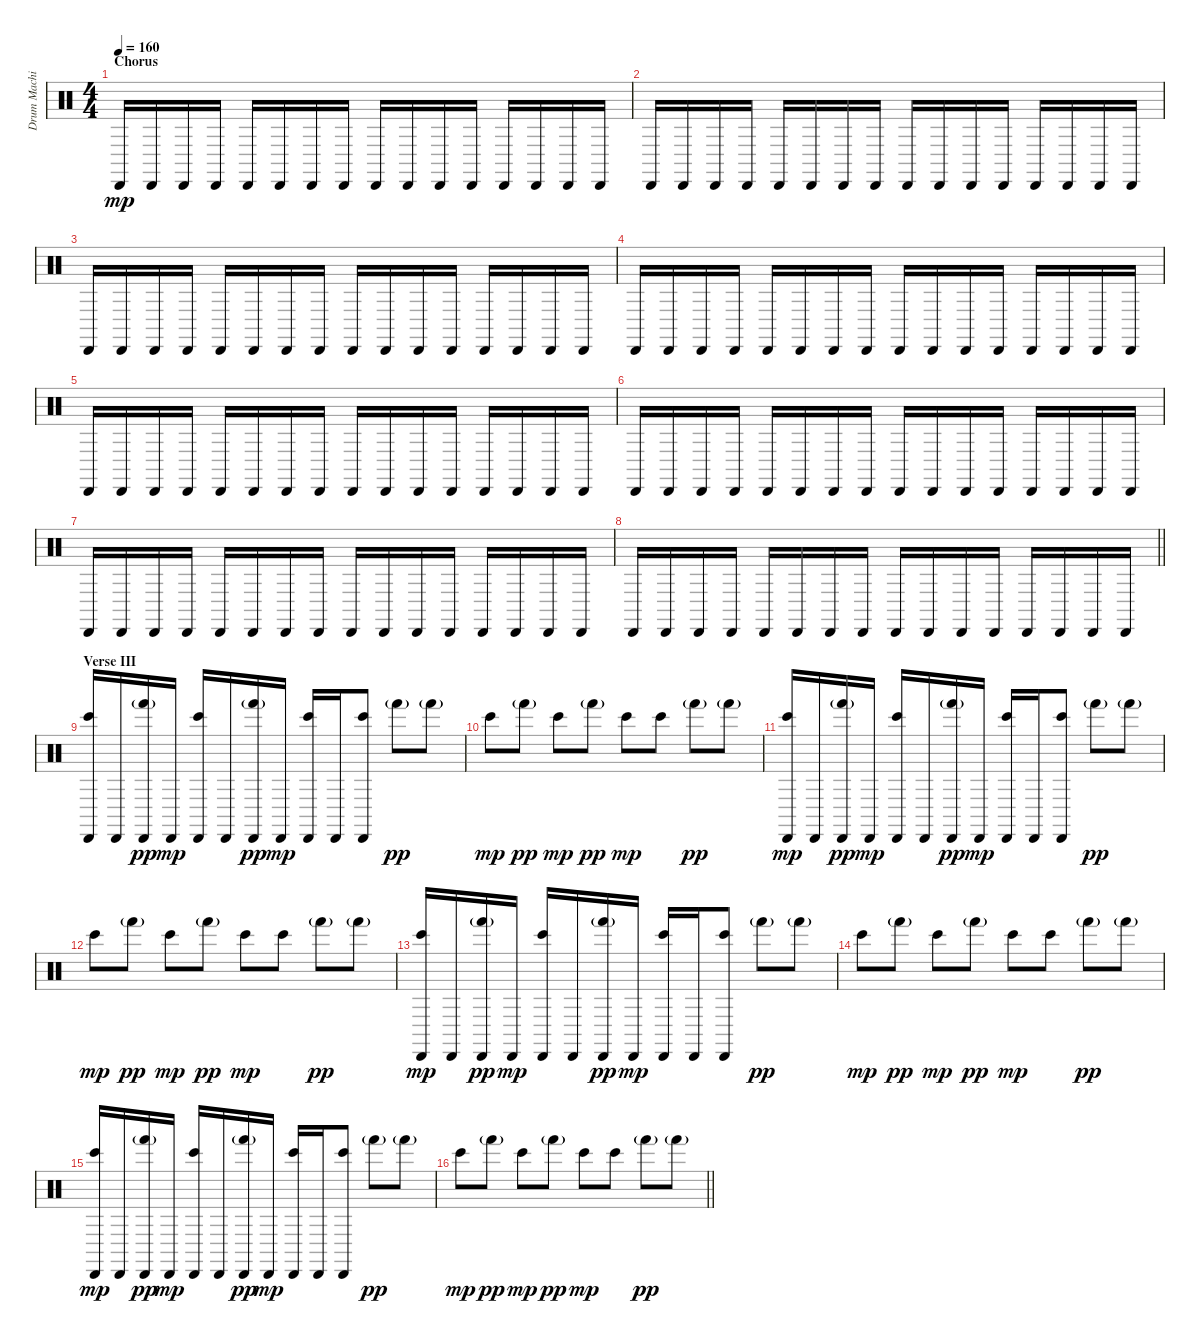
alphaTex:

\track ("Drum Machine" "Drum Machi") {instrument percussion}
\staff {score}
\articulation defaults
\ts (4 4)
\section ("" "Chorus")
\tempo 160
\clef neutral
\ks c "Cabasa (hit)".16{dy mp} "Cabasa (hit)".16 "Cabasa (hit)".16 "Cabasa (hit)".16 "Cabasa (hit)".16 "Cabasa (hit)".16 "Cabasa (hit)".16 "Cabasa (hit)".16 "Cabasa (hit)".16 "Cabasa (hit)".16 "Cabasa (hit)".16 "Cabasa (hit)".16 "Cabasa (hit)".16 "Cabasa (hit)".16 "Cabasa (hit)".16 "Cabasa (hit)".16
|
"Cabasa (hit)".16 "Cabasa (hit)".16 "Cabasa (hit)".16 "Cabasa (hit)".16 "Cabasa (hit)".16 "Cabasa (hit)".16 "Cabasa (hit)".16 "Cabasa (hit)".16 "Cabasa (hit)".16 "Cabasa (hit)".16 "Cabasa (hit)".16 "Cabasa (hit)".16 "Cabasa (hit)".16 "Cabasa (hit)".16 "Cabasa (hit)".16 "Cabasa (hit)".16 |
"Cabasa (hit)".16 "Cabasa (hit)".16 "Cabasa (hit)".16 "Cabasa (hit)".16 "Cabasa (hit)".16 "Cabasa (hit)".16 "Cabasa (hit)".16 "Cabasa (hit)".16 "Cabasa (hit)".16 "Cabasa (hit)".16 "Cabasa (hit)".16 "Cabasa (hit)".16 "Cabasa (hit)".16 "Cabasa (hit)".16 "Cabasa (hit)".16 "Cabasa (hit)".16 |
"Cabasa (hit)".16 "Cabasa (hit)".16 "Cabasa (hit)".16 "Cabasa (hit)".16 "Cabasa (hit)".16 "Cabasa (hit)".16 "Cabasa (hit)".16 "Cabasa (hit)".16 "Cabasa (hit)".16 "Cabasa (hit)".16 "Cabasa (hit)".16 "Cabasa (hit)".16 "Cabasa (hit)".16 "Cabasa (hit)".16 "Cabasa (hit)".16 "Cabasa (hit)".16 |
"Cabasa (hit)".16 "Cabasa (hit)".16 "Cabasa (hit)".16 "Cabasa (hit)".16 "Cabasa (hit)".16 "Cabasa (hit)".16 "Cabasa (hit)".16 "Cabasa (hit)".16 "Cabasa (hit)".16 "Cabasa (hit)".16 "Cabasa (hit)".16 "Cabasa (hit)".16 "Cabasa (hit)".16 "Cabasa (hit)".16 "Cabasa (hit)".16 "Cabasa (hit)".16 |
"Cabasa (hit)".16 "Cabasa (hit)".16 "Cabasa (hit)".16 "Cabasa (hit)".16 "Cabasa (hit)".16 "Cabasa (hit)".16 "Cabasa (hit)".16 "Cabasa (hit)".16 "Cabasa (hit)".16 "Cabasa (hit)".16 "Cabasa (hit)".16 "Cabasa (hit)".16 "Cabasa (hit)".16 "Cabasa (hit)".16 "Cabasa (hit)".16 "Cabasa (hit)".16 |
"Cabasa (hit)".16 "Cabasa (hit)".16 "Cabasa (hit)".16 "Cabasa (hit)".16 "Cabasa (hit)".16 "Cabasa (hit)".16 "Cabasa (hit)".16 "Cabasa (hit)".16 "Cabasa (hit)".16 "Cabasa (hit)".16 "Cabasa (hit)".16 "Cabasa (hit)".16 "Cabasa (hit)".16 "Cabasa (hit)".16 "Cabasa (hit)".16 "Cabasa (hit)".16 |
\barLineRight lightlight "Cabasa (hit)".16 "Cabasa (hit)".16 "Cabasa (hit)".16 "Cabasa (hit)".16 "Cabasa (hit)".16 "Cabasa (hit)".16 "Cabasa (hit)".16 "Cabasa (hit)".16 "Cabasa (hit)".16 "Cabasa (hit)".16 "Cabasa (hit)".16 "Cabasa (hit)".16 "Cabasa (hit)".16 "Cabasa (hit)".16 "Cabasa (hit)".16 "Cabasa (hit)".16
|
\section ("" "Verse III")
("Cabasa (hit)" "Bongo High (hit)").16 "Cabasa (hit)".16 ("Cabasa (hit)" "Hand (hit)"{g}).16{dy pp} "Cabasa (hit)".16{dy mp} ("Cabasa (hit)" "Bongo High (hit)").16 "Cabasa (hit)".16 ("Cabasa (hit)" "Hand (hit)"{g}).16{dy pp} "Cabasa (hit)".16{dy mp} ("Cabasa (hit)" "Bongo High (hit)").16 "Cabasa (hit)".16 ("Cabasa (hit)" "Bongo High (hit)").8 "Hand (hit)"{g}.8{dy pp} "Hand (hit)"{g}.8 |
"Bongo High (hit)".8{dy mp} "Hand (hit)"{g}.8{dy pp} "Bongo High (hit)".8{dy mp} "Hand (hit)"{g}.8{dy pp} "Bongo High (hit)".8{dy mp} "Bongo High (hit)".8 "Hand (hit)"{g}.8{dy pp} "Hand (hit)"{g}.8 |
("Cabasa (hit)" "Bongo High (hit)").16{dy mp} "Cabasa (hit)".16 ("Cabasa (hit)" "Hand (hit)"{g}).16{dy pp} "Cabasa (hit)".16{dy mp} ("Cabasa (hit)" "Bongo High (hit)").16 "Cabasa (hit)".16 ("Cabasa (hit)" "Hand (hit)"{g}).16{dy pp} "Cabasa (hit)".16{dy mp} ("Cabasa (hit)" "Bongo High (hit)").16 "Cabasa (hit)".16 ("Cabasa (hit)" "Bongo High (hit)").8 "Hand (hit)"{g}.8{dy pp} "Hand (hit)"{g}.8 |
"Bongo High (hit)".8{dy mp} "Hand (hit)"{g}.8{dy pp} "Bongo High (hit)".8{dy mp} "Hand (hit)"{g}.8{dy pp} "Bongo High (hit)".8{dy mp} "Bongo High (hit)".8 "Hand (hit)"{g}.8{dy pp} "Hand (hit)"{g}.8 |
("Cabasa (hit)" "Bongo High (hit)").16{dy mp} "Cabasa (hit)".16 ("Cabasa (hit)" "Hand (hit)"{g}).16{dy pp} "Cabasa (hit)".16{dy mp} ("Cabasa (hit)" "Bongo High (hit)").16 "Cabasa (hit)".16 ("Cabasa (hit)" "Hand (hit)"{g}).16{dy pp} "Cabasa (hit)".16{dy mp} ("Cabasa (hit)" "Bongo High (hit)").16 "Cabasa (hit)".16 ("Cabasa (hit)" "Bongo High (hit)").8 "Hand (hit)"{g}.8{dy pp} "Hand (hit)"{g}.8 |
"Bongo High (hit)".8{dy mp} "Hand (hit)"{g}.8{dy pp} "Bongo High (hit)".8{dy mp} "Hand (hit)"{g}.8{dy pp} "Bongo High (hit)".8{dy mp} "Bongo High (hit)".8 "Hand (hit)"{g}.8{dy pp} "Hand (hit)"{g}.8 |
("Cabasa (hit)" "Bongo High (hit)").16{dy mp} "Cabasa (hit)".16 ("Cabasa (hit)" "Hand (hit)"{g}).16{dy pp} "Cabasa (hit)".16{dy mp} ("Cabasa (hit)" "Bongo High (hit)").16 "Cabasa (hit)".16 ("Cabasa (hit)" "Hand (hit)"{g}).16{dy pp} "Cabasa (hit)".16{dy mp} ("Cabasa (hit)" "Bongo High (hit)").16 "Cabasa (hit)".16 ("Cabasa (hit)" "Bongo High (hit)").8 "Hand (hit)"{g}.8{dy pp} "Hand (hit)"{g}.8 |
\barLineRight lightlight "Bongo High (hit)".8{dy mp} "Hand (hit)"{g}.8{dy pp} "Bongo High (hit)".8{dy mp} "Hand (hit)"{g}.8{dy pp} "Bongo High (hit)".8{dy mp} "Bongo High (hit)".8 "Hand (hit)"{g}.8{dy pp} "Hand (hit)"{g}.8
